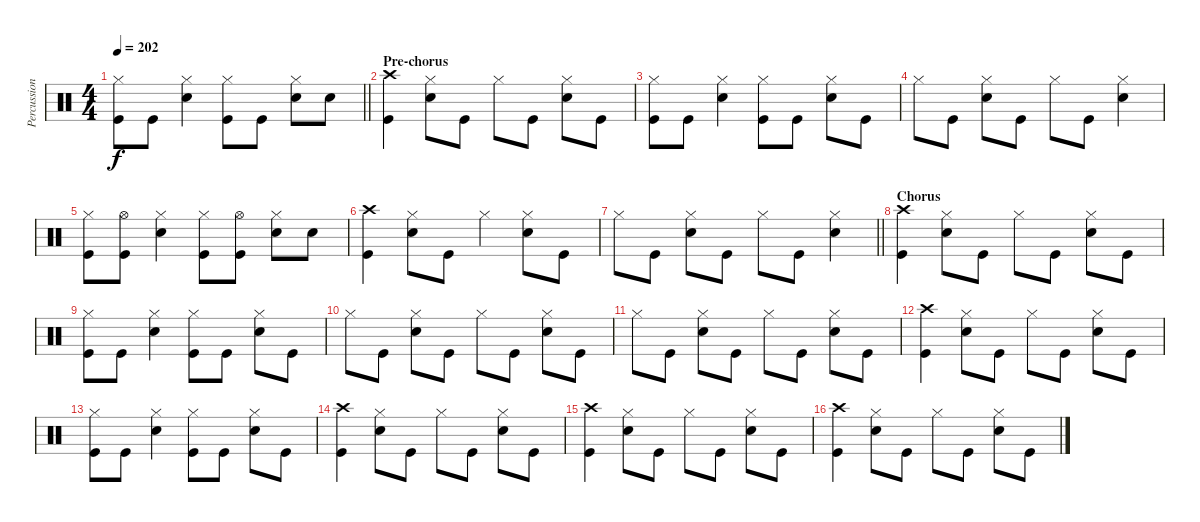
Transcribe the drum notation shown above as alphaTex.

\track ("Percussion" "Percussion") {instrument percussion}
\staff {score}
\articulation defaults
\ts (4 4)
\tempo 202
\clef neutral
\barLineRight lightlight
\ks c
("Hi-Hat (closed)" "Kick (hit)").8{dy f} "Kick (hit)".8 ("Hi-Hat (closed)" "Snare (hit) 2").4 ("Hi-Hat (closed)" "Kick (hit)").8 "Kick (hit)".8 ("Hi-Hat (closed)" "Snare (hit) 2").8 "Snare (hit) 2".8 |
\section ("" "Pre-chorus")
("Crash high (hit)" "Kick (hit)").4 ("Hi-Hat (closed)" "Snare (hit) 2").8 "Kick (hit)".8 "Hi-Hat (closed)".8 "Kick (hit)".8 ("Hi-Hat (closed)" "Snare (hit) 2").8 "Kick (hit)".8 |
("Hi-Hat (closed)" "Kick (hit)").8 "Kick (hit)".8 ("Hi-Hat (closed)" "Snare (hit) 2").4 ("Hi-Hat (closed)" "Kick (hit)").8 "Kick (hit)".8 ("Hi-Hat (closed)" "Snare (hit) 2").8 "Kick (hit)".8 |
"Hi-Hat (closed)".8 "Kick (hit)".8 ("Hi-Hat (closed)" "Snare (hit) 2").8 "Kick (hit)".8 "Hi-Hat (closed)".8 "Kick (hit)".8 ("Hi-Hat (closed)" "Snare (hit) 2").4 |
("Hi-Hat (closed)" "Kick (hit)").8 ("Hi-Hat (open)" "Kick (hit)").8 ("Hi-Hat (closed)" "Snare (hit) 2").4 ("Hi-Hat (closed)" "Kick (hit)").8 ("Hi-Hat (open)" "Kick (hit)").8 ("Hi-Hat (closed)" "Snare (hit) 2").8 "Snare (hit) 2".8 |
("Crash high (hit)" "Kick (hit)").4 ("Hi-Hat (closed)" "Snare (hit) 2").8 "Kick (hit)".8 "Hi-Hat (closed)".4 ("Hi-Hat (closed)" "Snare (hit) 2").8 "Kick (hit)".8 |
\barLineRight lightlight "Hi-Hat (closed)".8 "Kick (hit)".8
("Hi-Hat (closed)" "Snare (hit) 2").8 "Kick (hit)".8 "Hi-Hat (closed)".8 "Kick (hit)".8 ("Hi-Hat (closed)" "Snare (hit) 2").4 |
\section ("" "Chorus")
("Crash high (hit)" "Kick (hit)").4 ("Hi-Hat (closed)" "Snare (hit) 2").8 "Kick (hit)".8 "Hi-Hat (closed)".8 "Kick (hit)".8 ("Hi-Hat (closed)" "Snare (hit) 2").8 "Kick (hit)".8 |
("Hi-Hat (closed)" "Kick (hit)").8 "Kick (hit)".8 ("Hi-Hat (closed)" "Snare (hit) 2").4 ("Hi-Hat (closed)" "Kick (hit)").8 "Kick (hit)".8 ("Hi-Hat (closed)" "Snare (hit) 2").8 "Kick (hit)".8 |
"Hi-Hat (closed)".8 "Kick (hit)".8 ("Hi-Hat (closed)" "Snare (hit) 2").8 "Kick (hit)".8 "Hi-Hat (closed)".8 "Kick (hit)".8 ("Hi-Hat (closed)" "Snare (hit) 2").8 "Kick (hit)".8 |
"Hi-Hat (closed)".8 "Kick (hit)".8 ("Hi-Hat (closed)" "Snare (hit) 2").8 "Kick (hit)".8 "Hi-Hat (closed)".8 "Kick (hit)".8 ("Hi-Hat (closed)" "Snare (hit) 2").8 "Kick (hit)".8 |
("Crash high (hit)" "Kick (hit)").4 ("Hi-Hat (closed)" "Snare (hit) 2").8 "Kick (hit)".8 "Hi-Hat (closed)".8 "Kick (hit)".8 ("Hi-Hat (closed)" "Snare (hit) 2").8 "Kick (hit)".8 |
("Hi-Hat (closed)" "Kick (hit)").8 "Kick (hit)".8 ("Hi-Hat (closed)" "Snare (hit) 2").4 ("Hi-Hat (closed)" "Kick (hit)").8 "Kick (hit)".8 ("Hi-Hat (closed)" "Snare (hit) 2").8 "Kick (hit)".8 |
("Crash high (hit)" "Kick (hit)").4 ("Hi-Hat (closed)" "Snare (hit) 2").8 "Kick (hit)".8 "Hi-Hat (closed)".8 "Kick (hit)".8 ("Hi-Hat (closed)" "Snare (hit) 2").8 "Kick (hit)".8 |
("Crash high (hit)" "Kick (hit)").4 ("Hi-Hat (closed)" "Snare (hit) 2").8 "Kick (hit)".8 "Hi-Hat (closed)".8 "Kick (hit)".8 ("Hi-Hat (closed)" "Snare (hit) 2").8 "Kick (hit)".8 |
("Crash high (hit)" "Kick (hit)").4 ("Hi-Hat (closed)" "Snare (hit) 2").8 "Kick (hit)".8 "Hi-Hat (closed)".8 "Kick (hit)".8 ("Hi-Hat (closed)" "Snare (hit) 2").8 "Kick (hit)".8
